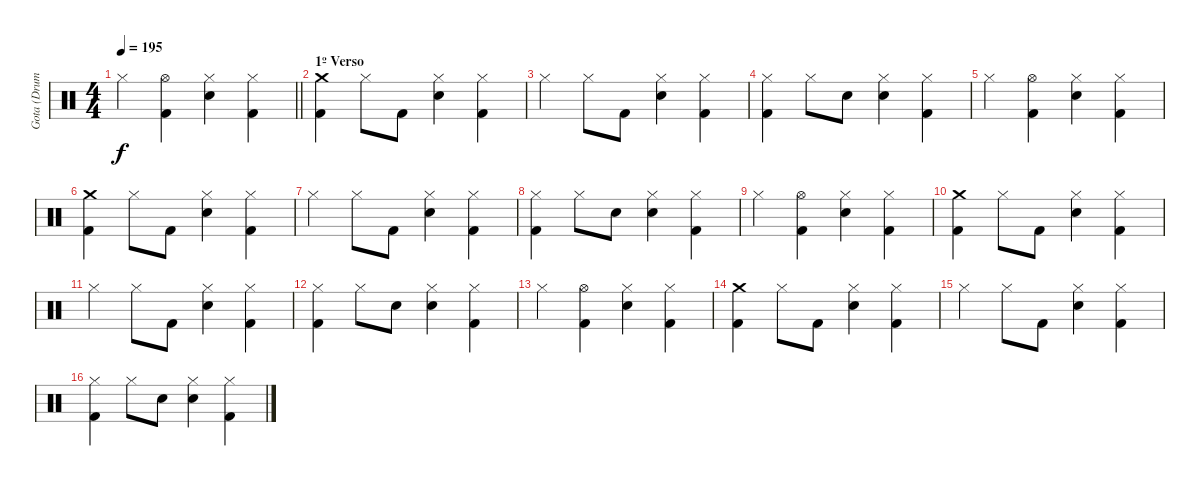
\track ("Gota (Drums)" "Gota (Drum") {instrument percussion}
\staff {score}
\articulation defaults
\ts (4 4)
\tempo 195
\clef neutral
\barLineRight lightlight
\ks c "Hi-Hat (closed)".4{dy f}
("Hi-Hat (open)" "Kick (hit) 2").4 ("Hi-Hat (closed)" "Electric Snare (hit)").4 ("Hi-Hat (closed)" "Kick (hit) 2").4 |
\section ("" "1º Verso")
("Crash medium (hit)" "Kick (hit) 2").4 "Hi-Hat (closed)".8 "Kick (hit) 2".8 ("Hi-Hat (closed)" "Electric Snare (hit)").4 ("Hi-Hat (closed)" "Kick (hit) 2").4 |
"Hi-Hat (closed)".4 "Hi-Hat (closed)".8 "Kick (hit) 2".8 ("Hi-Hat (closed)" "Electric Snare (hit)").4 ("Hi-Hat (closed)" "Kick (hit) 2").4 |
("Hi-Hat (closed)" "Kick (hit) 2").4 "Hi-Hat (closed)".8 "Electric Snare (hit)".8 ("Hi-Hat (closed)" "Electric Snare (hit)").4 ("Hi-Hat (closed)" "Kick (hit) 2").4 |
"Hi-Hat (closed)".4 ("Hi-Hat (open)" "Kick (hit) 2").4 ("Hi-Hat (closed)" "Electric Snare (hit)").4 ("Hi-Hat (closed)" "Kick (hit) 2").4 |
("Crash medium (hit)" "Kick (hit) 2").4 "Hi-Hat (closed)".8 "Kick (hit) 2".8 ("Hi-Hat (closed)" "Electric Snare (hit)").4 ("Hi-Hat (closed)" "Kick (hit) 2").4 |
"Hi-Hat (closed)".4 "Hi-Hat (closed)".8 "Kick (hit) 2".8 ("Hi-Hat (closed)" "Electric Snare (hit)").4 ("Hi-Hat (closed)" "Kick (hit) 2").4 |
("Hi-Hat (closed)" "Kick (hit) 2").4 "Hi-Hat (closed)".8 "Electric Snare (hit)".8 ("Hi-Hat (closed)" "Electric Snare (hit)").4 ("Hi-Hat (closed)" "Kick (hit) 2").4 |
"Hi-Hat (closed)".4 ("Hi-Hat (open)" "Kick (hit) 2").4 ("Hi-Hat (closed)" "Electric Snare (hit)").4 ("Hi-Hat (closed)" "Kick (hit) 2").4 |
("Crash medium (hit)" "Kick (hit) 2").4 "Hi-Hat (closed)".8 "Kick (hit) 2".8 ("Hi-Hat (closed)" "Electric Snare (hit)").4 ("Hi-Hat (closed)" "Kick (hit) 2").4 |
"Hi-Hat (closed)".4 "Hi-Hat (closed)".8 "Kick (hit) 2".8 ("Hi-Hat (closed)" "Electric Snare (hit)").4 ("Hi-Hat (closed)" "Kick (hit) 2").4 |
("Hi-Hat (closed)" "Kick (hit) 2").4 "Hi-Hat (closed)".8 "Electric Snare (hit)".8 ("Hi-Hat (closed)" "Electric Snare (hit)").4 ("Hi-Hat (closed)" "Kick (hit) 2").4 |
"Hi-Hat (closed)".4 ("Hi-Hat (open)" "Kick (hit) 2").4 ("Hi-Hat (closed)" "Electric Snare (hit)").4 ("Hi-Hat (closed)" "Kick (hit) 2").4 |
("Crash medium (hit)" "Kick (hit) 2").4 "Hi-Hat (closed)".8 "Kick (hit) 2".8 ("Hi-Hat (closed)" "Electric Snare (hit)").4 ("Hi-Hat (closed)" "Kick (hit) 2").4 |
"Hi-Hat (closed)".4 "Hi-Hat (closed)".8 "Kick (hit) 2".8 ("Hi-Hat (closed)" "Electric Snare (hit)").4 ("Hi-Hat (closed)" "Kick (hit) 2").4 |
("Hi-Hat (closed)" "Kick (hit) 2").4 "Hi-Hat (closed)".8 "Electric Snare (hit)".8 ("Hi-Hat (closed)" "Electric Snare (hit)").4 ("Hi-Hat (closed)" "Kick (hit) 2").4
